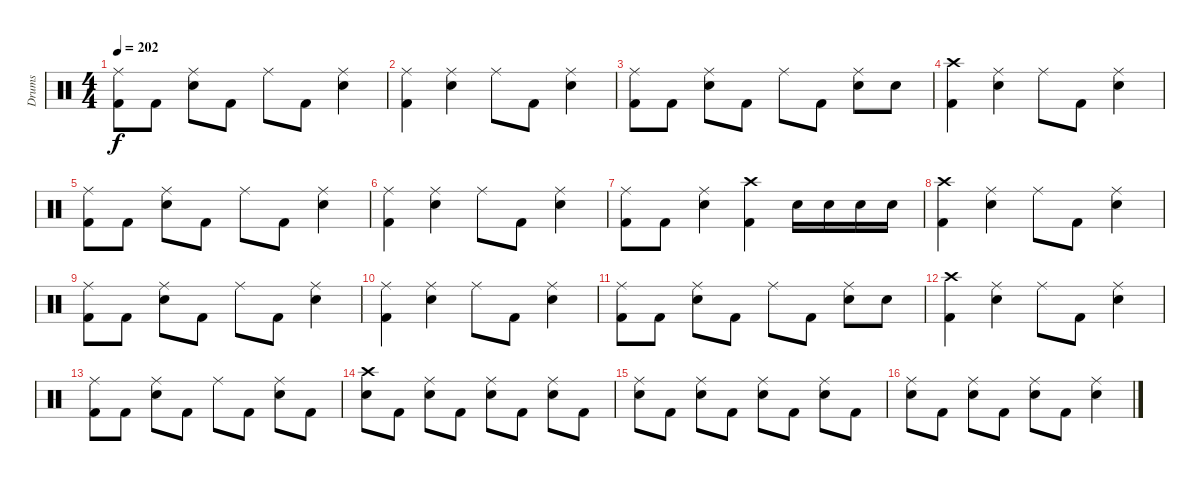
\track ("Drums" "Drums") {instrument percussion}
\staff {score}
\articulation defaults
\ts (4 4)
\tempo 202
\clef neutral
\ks c
("Ride (middle)" "Kick (hit) 2").8{dy f} "Kick (hit) 2".8 ("Ride (middle)" "Electric Snare (hit)").8 "Kick (hit) 2".8 "Ride (middle)".8 "Kick (hit) 2".8 ("Ride (middle)" "Electric Snare (hit)").4 |
("Ride (middle)" "Kick (hit) 2").4 ("Ride (middle)" "Electric Snare (hit)").4 "Ride (middle)".8 "Kick (hit) 2".8 ("Ride (middle)" "Electric Snare (hit)").4 |
("Ride (middle)" "Kick (hit) 2").8 "Kick (hit) 2".8 ("Ride (middle)" "Electric Snare (hit)").8 "Kick (hit) 2".8 "Ride (middle)".8 "Kick (hit) 2".8 ("Ride (middle)" "Electric Snare (hit)").8 "Electric Snare (hit)".8 |
("Crash high (hit)" "Kick (hit) 2").4 ("Ride (middle)" "Electric Snare (hit)").4 "Ride (middle)".8 "Kick (hit) 2".8 ("Ride (middle)" "Electric Snare (hit)").4 |
("Ride (middle)" "Kick (hit) 2").8 "Kick (hit) 2".8 ("Ride (middle)" "Electric Snare (hit)").8 "Kick (hit) 2".8 "Ride (middle)".8 "Kick (hit) 2".8 ("Ride (middle)" "Electric Snare (hit)").4 |
("Ride (middle)" "Kick (hit) 2").4 ("Ride (middle)" "Electric Snare (hit)").4 "Ride (middle)".8 "Kick (hit) 2".8 ("Ride (middle)" "Electric Snare (hit)").4 |
("Ride (middle)" "Kick (hit) 2").8 "Kick (hit) 2".8 ("Ride (middle)" "Electric Snare (hit)").4 ("Crash high (hit)" "Kick (hit) 2").4 "Electric Snare (hit)".16 "Electric Snare (hit)".16 "Electric Snare (hit)".16 "Electric Snare (hit)".16 |
("Crash high (hit)" "Kick (hit) 2").4 ("Ride (middle)" "Electric Snare (hit)").4 "Ride (middle)".8 "Kick (hit) 2".8 ("Ride (middle)" "Electric Snare (hit)").4 |
("Ride (middle)" "Kick (hit) 2").8 "Kick (hit) 2".8 ("Ride (middle)" "Electric Snare (hit)").8 "Kick (hit) 2".8 "Ride (middle)".8 "Kick (hit) 2".8 ("Ride (middle)" "Electric Snare (hit)").4 |
("Ride (middle)" "Kick (hit) 2").4 ("Ride (middle)" "Electric Snare (hit)").4 "Ride (middle)".8 "Kick (hit) 2".8 ("Ride (middle)" "Electric Snare (hit)").4 |
("Ride (middle)" "Kick (hit) 2").8 "Kick (hit) 2".8 ("Ride (middle)" "Electric Snare (hit)").8 "Kick (hit) 2".8 "Ride (middle)".8 "Kick (hit) 2".8 ("Ride (middle)" "Electric Snare (hit)").8 "Electric Snare (hit)".8 |
("Crash high (hit)" "Kick (hit) 2").4 ("Ride (middle)" "Electric Snare (hit)").4 "Ride (middle)".8 "Kick (hit) 2".8 ("Ride (middle)" "Electric Snare (hit)").4 |
("Ride (middle)" "Kick (hit) 2").8 "Kick (hit) 2".8 ("Ride (middle)" "Electric Snare (hit)").8 "Kick (hit) 2".8 "Ride (middle)".8 "Kick (hit) 2".8 ("Ride (middle)" "Electric Snare (hit)").8 "Kick (hit) 2".8 |
("Crash high (hit)" "Electric Snare (hit)").8 "Kick (hit) 2".8 ("Ride (middle)" "Electric Snare (hit)").8 "Kick (hit) 2".8 ("Ride (middle)" "Electric Snare (hit)").8 "Kick (hit) 2".8 ("Ride (middle)" "Electric Snare (hit)").8 "Kick (hit) 2".8 |
("Ride (middle)" "Electric Snare (hit)").8 "Kick (hit) 2".8 ("Ride (middle)" "Electric Snare (hit)").8 "Kick (hit) 2".8 ("Ride (middle)" "Electric Snare (hit)").8 "Kick (hit) 2".8 ("Ride (middle)" "Electric Snare (hit)").8 "Kick (hit) 2".8 |
("Ride (middle)" "Electric Snare (hit)").8 "Kick (hit) 2".8 ("Ride (middle)" "Electric Snare (hit)").8 "Kick (hit) 2".8 ("Ride (middle)" "Electric Snare (hit)").8 "Kick (hit) 2".8 ("Ride (middle)" "Electric Snare (hit)").4
